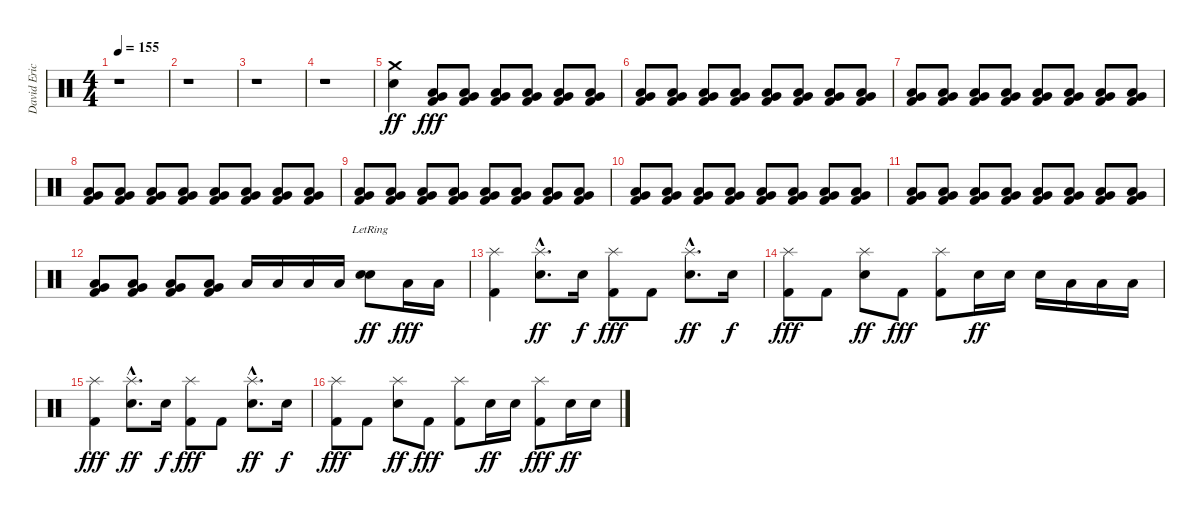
\track ("David Eric Grohl" "David Eric") {instrument percussion}
\staff {score}
\articulation defaults
\ts (4 4)
\tempo 155
\clef neutral
\ks c
r.1{dy ff} |
r.1 |
r.1 |
r.1 |
("Crash medium (hit)" "Electric Snare (hit)").4 ("Low Tom (hit)" "Very Low Tom (hit)" "Kick (hit) 2").8{dy fff} ("Low Tom (hit)" "Very Low Tom (hit)" "Kick (hit) 2").8 ("Low Tom (hit)" "Very Low Tom (hit)" "Kick (hit) 2").8 ("Low Tom (hit)" "Very Low Tom (hit)" "Kick (hit) 2").8 ("Low Tom (hit)" "Very Low Tom (hit)" "Kick (hit) 2").8 ("Low Tom (hit)" "Very Low Tom (hit)" "Kick (hit) 2").8 |
("Low Tom (hit)" "Very Low Tom (hit)" "Kick (hit) 2").8 ("Low Tom (hit)" "Very Low Tom (hit)" "Kick (hit) 2").8 ("Low Tom (hit)" "Very Low Tom (hit)" "Kick (hit) 2").8 ("Low Tom (hit)" "Very Low Tom (hit)" "Kick (hit) 2").8 ("Low Tom (hit)" "Very Low Tom (hit)" "Kick (hit) 2").8 ("Low Tom (hit)" "Very Low Tom (hit)" "Kick (hit) 2").8 ("Low Tom (hit)" "Very Low Tom (hit)" "Kick (hit) 2").8 ("Low Tom (hit)" "Very Low Tom (hit)" "Kick (hit) 2").8 |
("Low Tom (hit)" "Very Low Tom (hit)" "Kick (hit) 2").8 ("Low Tom (hit)" "Very Low Tom (hit)" "Kick (hit) 2").8 ("Low Tom (hit)" "Very Low Tom (hit)" "Kick (hit) 2").8 ("Low Tom (hit)" "Very Low Tom (hit)" "Kick (hit) 2").8 ("Low Tom (hit)" "Very Low Tom (hit)" "Kick (hit) 2").8 ("Low Tom (hit)" "Very Low Tom (hit)" "Kick (hit) 2").8 ("Low Tom (hit)" "Very Low Tom (hit)" "Kick (hit) 2").8 ("Low Tom (hit)" "Very Low Tom (hit)" "Kick (hit) 2").8 |
("Low Tom (hit)" "Very Low Tom (hit)" "Kick (hit) 2").8 ("Low Tom (hit)" "Very Low Tom (hit)" "Kick (hit) 2").8 ("Low Tom (hit)" "Very Low Tom (hit)" "Kick (hit) 2").8 ("Low Tom (hit)" "Very Low Tom (hit)" "Kick (hit) 2").8 ("Low Tom (hit)" "Very Low Tom (hit)" "Kick (hit) 2").8 ("Low Tom (hit)" "Very Low Tom (hit)" "Kick (hit) 2").8 ("Low Tom (hit)" "Very Low Tom (hit)" "Kick (hit) 2").8 ("Low Tom (hit)" "Very Low Tom (hit)" "Kick (hit) 2").8 |
("Low Tom (hit)" "Very Low Tom (hit)" "Kick (hit) 2").8 ("Low Tom (hit)" "Very Low Tom (hit)" "Kick (hit) 2").8 ("Low Tom (hit)" "Very Low Tom (hit)" "Kick (hit) 2").8 ("Low Tom (hit)" "Very Low Tom (hit)" "Kick (hit) 2").8 ("Low Tom (hit)" "Very Low Tom (hit)" "Kick (hit) 2").8 ("Low Tom (hit)" "Very Low Tom (hit)" "Kick (hit) 2").8 ("Low Tom (hit)" "Very Low Tom (hit)" "Kick (hit) 2").8 ("Low Tom (hit)" "Very Low Tom (hit)" "Kick (hit) 2").8 |
("Low Tom (hit)" "Very Low Tom (hit)" "Kick (hit) 2").8 ("Low Tom (hit)" "Very Low Tom (hit)" "Kick (hit) 2").8 ("Low Tom (hit)" "Very Low Tom (hit)" "Kick (hit) 2").8 ("Low Tom (hit)" "Very Low Tom (hit)" "Kick (hit) 2").8 ("Low Tom (hit)" "Very Low Tom (hit)" "Kick (hit) 2").8 ("Low Tom (hit)" "Very Low Tom (hit)" "Kick (hit) 2").8 ("Low Tom (hit)" "Very Low Tom (hit)" "Kick (hit) 2").8 ("Low Tom (hit)" "Very Low Tom (hit)" "Kick (hit) 2").8 |
("Low Tom (hit)" "Very Low Tom (hit)" "Kick (hit) 2").8 ("Low Tom (hit)" "Very Low Tom (hit)" "Kick (hit) 2").8 ("Low Tom (hit)" "Very Low Tom (hit)" "Kick (hit) 2").8 ("Low Tom (hit)" "Very Low Tom (hit)" "Kick (hit) 2").8 ("Low Tom (hit)" "Very Low Tom (hit)" "Kick (hit) 2").8 ("Low Tom (hit)" "Very Low Tom (hit)" "Kick (hit) 2").8 ("Low Tom (hit)" "Very Low Tom (hit)" "Kick (hit) 2").8 ("Low Tom (hit)" "Very Low Tom (hit)" "Kick (hit) 2").8 |
("Low Tom (hit)" "Very Low Tom (hit)" "Kick (hit) 2").8 ("Low Tom (hit)" "Very Low Tom (hit)" "Kick (hit) 2").8 ("Low Tom (hit)" "Very Low Tom (hit)" "Kick (hit) 2").8 ("Low Tom (hit)" "Very Low Tom (hit)" "Kick (hit) 2").8 "Low Tom (hit)".16 "Low Tom (hit)".16 "Low Tom (hit)".16 "Low Tom (hit)".16 ("Electric Snare (hit)"{lr} "Electric Snare (hit)"{lr}).8{dy ff} "Low Tom (hit)".16{dy fff} "Low Tom (hit)".16 |
("Splash (hit)" "Kick (hit) 2").4 ("Splash (hit)"{hac} "Electric Snare (hit)"{hac}).8{d dy ff} "Electric Snare (hit)".16{dy f} ("Splash (hit)" "Kick (hit) 2").8{dy fff} "Kick (hit) 2".8 ("Splash (hit)"{hac} "Electric Snare (hit)"{hac}).8{d dy ff} "Electric Snare (hit)".16{dy f} |
("Splash (hit)" "Kick (hit) 2").8{dy fff} "Kick (hit) 2".8 ("Splash (hit)" "Electric Snare (hit)").8{dy ff} "Kick (hit) 2".8{dy fff} ("Splash (hit)" "Kick (hit) 2").8 "Electric Snare (hit)".16{dy ff} "Electric Snare (hit)".16 "Electric Snare (hit)".16 "Low Tom (hit)".16 "Low Tom (hit)".16 "Low Tom (hit)".16 |
("Splash (hit)" "Kick (hit) 2").4{dy fff} ("Splash (hit)"{hac} "Electric Snare (hit)"{hac}).8{d dy ff} "Electric Snare (hit)".16{dy f} ("Splash (hit)" "Kick (hit) 2").8{dy fff} "Kick (hit) 2".8 ("Splash (hit)"{hac} "Electric Snare (hit)"{hac}).8{d dy ff} "Electric Snare (hit)".16{dy f} |
("Splash (hit)" "Kick (hit) 2").8{dy fff} "Kick (hit) 2".8 ("Splash (hit)" "Electric Snare (hit)").8{dy ff} "Kick (hit) 2".8{dy fff} ("Splash (hit)" "Kick (hit) 2").8 "Electric Snare (hit)".16{dy ff} "Electric Snare (hit)".16 ("Splash (hit)" "Kick (hit) 2").8{dy fff} "Electric Snare (hit)".16{dy ff} "Electric Snare (hit)".16
